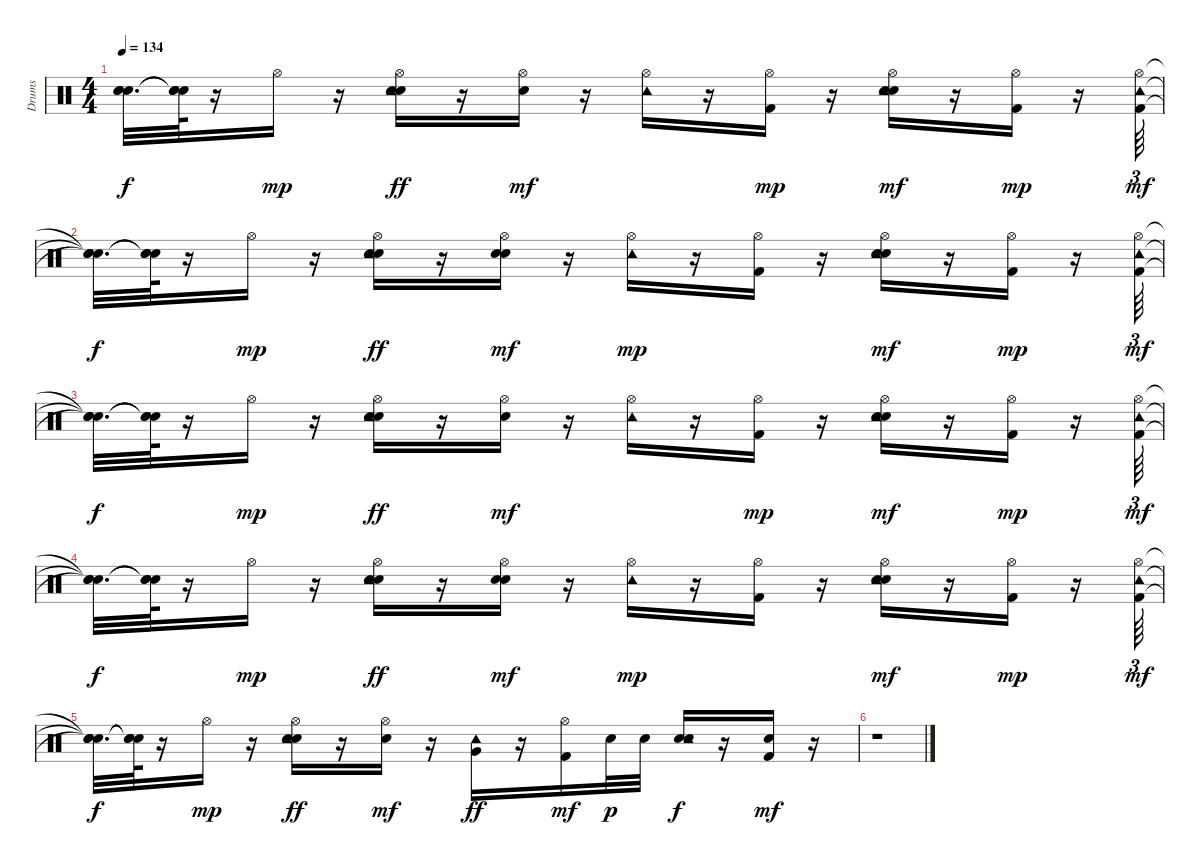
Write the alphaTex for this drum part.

\track ("Drums" "Drums") {instrument percussion}
\staff {score}
\articulation defaults
\ts (4 4)
\tempo 134
\clef neutral
\ks c
("Snare (hit)"{t} "Snare (hit)"{t} "Snare (hit)"{t}).32{d dy f} ("Snare (hit)"{t} "Snare (hit)"{t} "Snare (hit)"{t}).64 r.16 "Hi-Hat (open)".16{dy mp} r.16 ("Hi-Hat (open)" "Snare (hit) 2" "Hand Clap (hit)" "Tambourine (hit)").16{dy ff volume 9} r.16 ("Hi-Hat (open)" "Hand Clap (hit)").16{dy mf volume 9} r.16 ("Hi-Hat (open)" "Tambourine (hit)").16 r.16 ("Kick (hit) 2" "Hi-Hat (open)").16{dy mp volume 9} r.16 ("Hand Clap (hit)" "Tambourine (hit)" "Hi-Hat (open)" "Snare (hit) 2").16{dy mf volume 8} r.16 ("Kick (hit) 2" "Hi-Hat (open)").16{dy mp} r.16 ("Kick (hit) 2" "Hi-Hat (open)" "Tambourine (hit)").64{tu (3 2) dy mf} |
("Snare (hit)"{t} "Snare (hit)"{t} "Snare (hit)"{t}).32{d dy f} ("Snare (hit)"{t} "Snare (hit)"{t} "Snare (hit)"{t}).64 r.16 "Hi-Hat (open)".16{dy mp} r.16 ("Hi-Hat (open)" "Snare (hit) 2" "Hand Clap (hit)" "Tambourine (hit)").16{dy ff volume 8} r.16 ("Hi-Hat (open)" "Snare (hit) 2" "Hand Clap (hit)").16{dy mf volume 8} r.16 ("Tambourine (hit)" "Hi-Hat (open)").16{dy mp volume 7} r.16 ("Kick (hit) 2" "Hi-Hat (open)").16{volume 7} r.16 ("Hi-Hat (open)" "Hand Clap (hit)" "Tambourine (hit)" "Snare (hit) 2").16{dy mf} r.16 ("Kick (hit) 2" "Hi-Hat (open)").16{dy mp} r.16 ("Kick (hit) 2" "Hi-Hat (open)" "Tambourine (hit)").64{tu (3 2) dy mf} |
("Snare (hit)"{t} "Snare (hit)"{t} "Snare (hit)"{t}).32{d dy f} ("Snare (hit)"{t} "Snare (hit)"{t} "Snare (hit)"{t}).64 r.16 "Hi-Hat (open)".16{dy mp volume 6} r.16 ("Hi-Hat (open)" "Snare (hit) 2" "Hand Clap (hit)" "Tambourine (hit)").16{dy ff volume 6} r.16 ("Hi-Hat (open)" "Hand Clap (hit)").16{dy mf volume 6} r.16 ("Hi-Hat (open)" "Tambourine (hit)").16{volume 6} r.16 ("Kick (hit) 2" "Hi-Hat (open)").16{dy mp} r.16 ("Hi-Hat (open)" "Snare (hit) 2" "Hand Clap (hit)" "Tambourine (hit)").16{dy mf volume 5} r.16 ("Kick (hit) 2" "Hi-Hat (open)").16{dy mp volume 5} r.16 ("Tambourine (hit)" "Kick (hit) 2" "Hi-Hat (open)").64{tu (3 2) dy mf volume 5} |
("Snare (hit)"{t} "Snare (hit)"{t} "Snare (hit)"{t}).32{d dy f} ("Snare (hit)"{t} "Snare (hit)"{t} "Snare (hit)"{t}).64 r.16 "Hi-Hat (open)".16{dy mp volume 5} r.16 ("Hi-Hat (open)" "Snare (hit) 2" "Hand Clap (hit)" "Tambourine (hit)").16{dy ff volume 4} r.16 ("Hi-Hat (open)" "Snare (hit) 2" "Hand Clap (hit)").16{dy mf volume 4} r.16 ("Tambourine (hit)" "Hi-Hat (open)").16{dy mp volume 4} r.16 ("Kick (hit) 2" "Hi-Hat (open)").16{volume 4} r.16 ("Hi-Hat (open)" "Snare (hit) 2" "Hand Clap (hit)" "Tambourine (hit)").16{dy mf volume 3} r.16 ("Kick (hit) 2" "Hi-Hat (open)").16{dy mp} r.16 ("Kick (hit) 2" "Hi-Hat (open)" "Tambourine (hit)").64{tu (3 2) dy mf} |
("Snare (hit)"{t} "Snare (hit)"{t} "Snare (hit)"{t}).32{d dy f} ("Snare (hit)"{t} "Snare (hit)"{t} "Snare (hit)"{t}).64 r.16 "Hi-Hat (open)".16{dy mp volume 3} r.16 ("Hi-Hat (open)" "Snare (hit) 2" "Hand Clap (hit)" "Tambourine (hit)").16{dy ff volume 3} r.16 ("Hi-Hat (open)" "Hand Clap (hit)").16{dy mf volume 2} r.16 ("Tambourine (hit)" "Very Low Tom (hit)").16{dy ff volume 2} r.16 ("Kick (hit) 2" "Hi-Hat (open)").16{dy mf} "Snare (hit) 2".32{dy p volume 1} "Snare (hit) 2".32{volume 1} ("Snare (hit) 2" "Hand Clap (hit)" "Tambourine (hit)").16{dy f volume 1} r.16 ("Kick (hit) 2" "Snare (hit) 2").16{dy mf volume 1} r.16 |
r.1
